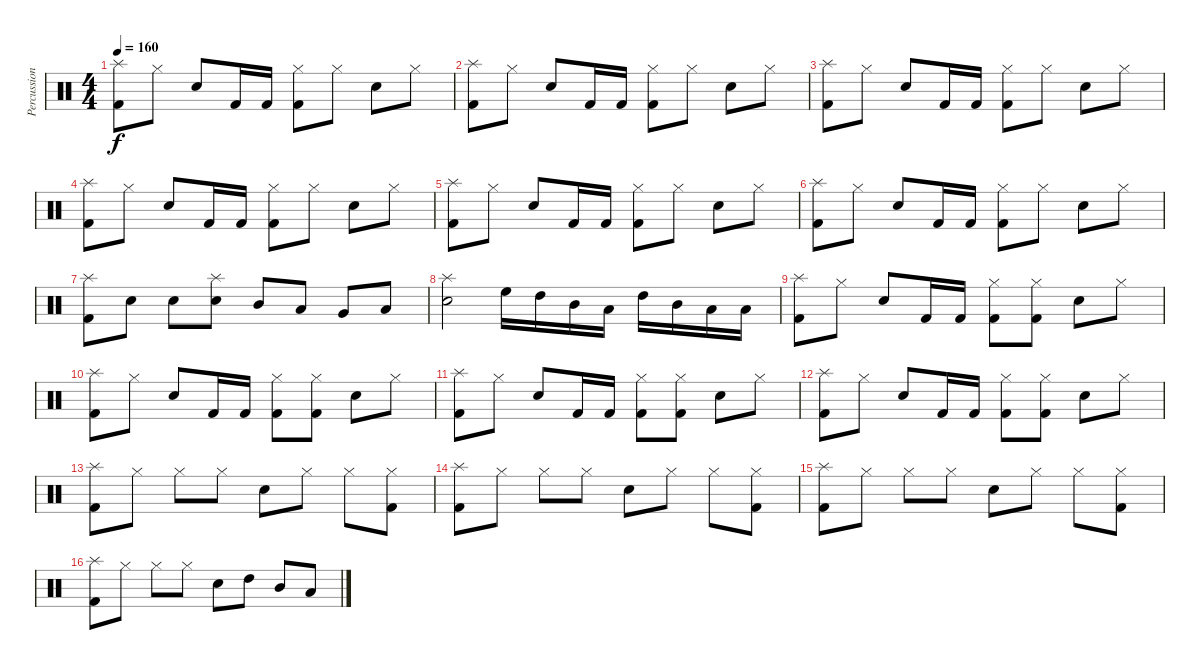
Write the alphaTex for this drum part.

\track ("Percussion" "Percussion") {instrument percussion}
\staff {score}
\articulation defaults
\ts (4 4)
\tempo 160
\clef neutral
\ks c
("Splash (hit)" "Kick (hit) 2").8{dy f} "Hi-Hat (closed)".8 "Snare (hit) 2".8 "Kick (hit) 2".16 "Kick (hit) 2".16 ("Hi-Hat (closed)" "Kick (hit) 2").8 "Hi-Hat (closed)".8 "Snare (hit) 2".8 "Hi-Hat (closed)".8 |
("Splash (hit)" "Kick (hit) 2").8 "Hi-Hat (closed)".8 "Snare (hit) 2".8 "Kick (hit) 2".16 "Kick (hit) 2".16 ("Hi-Hat (closed)" "Kick (hit) 2").8 "Hi-Hat (closed)".8 "Snare (hit) 2".8 "Hi-Hat (closed)".8 |
("Splash (hit)" "Kick (hit) 2").8 "Hi-Hat (closed)".8 "Snare (hit) 2".8 "Kick (hit) 2".16 "Kick (hit) 2".16 ("Hi-Hat (closed)" "Kick (hit) 2").8 "Hi-Hat (closed)".8 "Snare (hit) 2".8 "Hi-Hat (closed)".8 |
("Splash (hit)" "Kick (hit) 2").8 "Hi-Hat (closed)".8 "Snare (hit) 2".8 "Kick (hit) 2".16 "Kick (hit) 2".16 ("Hi-Hat (closed)" "Kick (hit) 2").8 "Hi-Hat (closed)".8 "Snare (hit) 2".8 "Hi-Hat (closed)".8 |
("Splash (hit)" "Kick (hit) 2").8 "Hi-Hat (closed)".8 "Snare (hit) 2".8 "Kick (hit) 2".16 "Kick (hit) 2".16 ("Hi-Hat (closed)" "Kick (hit) 2").8 "Hi-Hat (closed)".8 "Snare (hit) 2".8 "Hi-Hat (closed)".8 |
("Splash (hit)" "Kick (hit) 2").8 "Hi-Hat (closed)".8 "Snare (hit) 2".8 "Kick (hit) 2".16 "Kick (hit) 2".16 ("Hi-Hat (closed)" "Kick (hit) 2").8 "Hi-Hat (closed)".8 "Snare (hit) 2".8 "Hi-Hat (closed)".8 |
("Splash (hit)" "Kick (hit) 2").8 "Snare (hit) 2".8 "Snare (hit) 2".8 ("Splash (hit)" "Snare (hit) 2").8 "Mid Tom (hit)".8 "Low Tom (hit)".8 "Very Low Tom (hit)".8 "Low Floor Tom (hit)".8 |
("Splash (hit)" "Snare (hit) 2").2 "High Floor Tom (hit)".16 "High Tom (hit)".16 "Mid Tom (hit)".16 "Low Tom (hit)".16 "High Tom (hit)".16 "Mid Tom (hit)".16 "Low Tom (hit)".16 "Low Floor Tom (hit)".16 |
("Splash (hit)" "Kick (hit) 2").8 "Hi-Hat (closed)".8 "Snare (hit) 2".8 "Kick (hit) 2".16 "Kick (hit) 2".16 ("Hi-Hat (closed)" "Kick (hit) 2").8 ("Hi-Hat (closed)" "Kick (hit) 2").8 "Snare (hit) 2".8 "Hi-Hat (closed)".8 |
("Splash (hit)" "Kick (hit) 2").8 "Hi-Hat (closed)".8 "Snare (hit) 2".8 "Kick (hit) 2".16 "Kick (hit) 2".16 ("Hi-Hat (closed)" "Kick (hit) 2").8 ("Hi-Hat (closed)" "Kick (hit) 2").8 "Snare (hit) 2".8 "Hi-Hat (closed)".8 |
("Splash (hit)" "Kick (hit) 2").8 "Hi-Hat (closed)".8 "Snare (hit) 2".8 "Kick (hit) 2".16 "Kick (hit) 2".16 ("Hi-Hat (closed)" "Kick (hit) 2").8 ("Hi-Hat (closed)" "Kick (hit) 2").8 "Snare (hit) 2".8 "Hi-Hat (closed)".8 |
("Splash (hit)" "Kick (hit) 2").8 "Hi-Hat (closed)".8 "Snare (hit) 2".8 "Kick (hit) 2".16 "Kick (hit) 2".16 ("Hi-Hat (closed)" "Kick (hit) 2").8 ("Hi-Hat (closed)" "Kick (hit) 2").8 "Snare (hit) 2".8 "Hi-Hat (closed)".8 |
("Splash (hit)" "Kick (hit) 2").8 "Hi-Hat (closed)".8 "Hi-Hat (closed)".8 "Hi-Hat (closed)".8 "Snare (hit) 2".8 "Hi-Hat (closed)".8 "Hi-Hat (closed)".8 ("Hi-Hat (closed)" "Kick (hit) 2").8 |
("Splash (hit)" "Kick (hit) 2").8 "Hi-Hat (closed)".8 "Hi-Hat (closed)".8 "Hi-Hat (closed)".8 "Snare (hit) 2".8 "Hi-Hat (closed)".8 "Hi-Hat (closed)".8 ("Hi-Hat (closed)" "Kick (hit) 2").8 |
("Splash (hit)" "Kick (hit) 2").8 "Hi-Hat (closed)".8 "Hi-Hat (closed)".8 "Hi-Hat (closed)".8 "Snare (hit) 2".8 "Hi-Hat (closed)".8 "Hi-Hat (closed)".8 ("Hi-Hat (closed)" "Kick (hit) 2").8 |
("Splash (hit)" "Kick (hit) 2").8 "Hi-Hat (closed)".8 "Hi-Hat (closed)".8 "Hi-Hat (closed)".8 "Snare (hit) 2".8 "High Tom (hit)".8 "Mid Tom (hit)".8 "Low Tom (hit)".8
